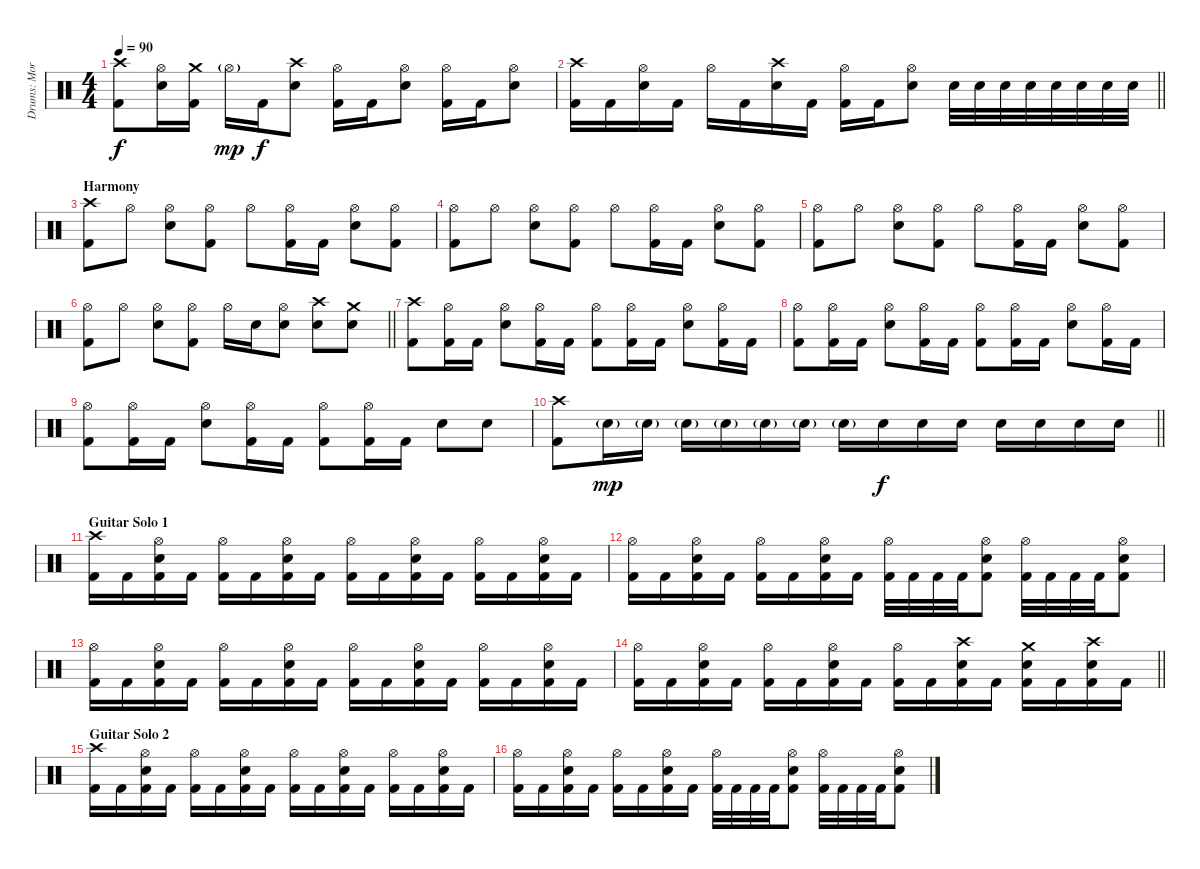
\track ("Drums: Morten Færøvig" "Drums: Mor") {instrument percussion}
\staff {score}
\articulation defaults
\ts (4 4)
\tempo 90
\clef neutral
\ks aminor
("Crash high (hit)" "Kick (hit) 2").8{dy f} ("Hi-Hat (open)" "Electric Snare (hit)").16 ("Crash medium (hit)" "Kick (hit) 2").16 "Hi-Hat (open)"{g}.16{dy mp} "Kick (hit) 2".16{dy f} ("Crash high (hit)" "Electric Snare (hit)").8 ("Hi-Hat (open)" "Kick (hit) 2").16 "Kick (hit) 2".16 ("Hi-Hat (open)" "Electric Snare (hit)").8 ("Hi-Hat (open)" "Kick (hit) 2").16 "Kick (hit) 2".16 ("Hi-Hat (open)" "Electric Snare (hit)").8 |
\barLineRight lightlight
("Crash high (hit)" "Kick (hit) 2").16 "Kick (hit) 2".16 ("Hi-Hat (open)" "Electric Snare (hit)").16 "Kick (hit) 2".16 "Hi-Hat (open)".16 "Kick (hit) 2".16 ("Crash high (hit)" "Electric Snare (hit)").16 "Kick (hit) 2".16 ("Hi-Hat (open)" "Kick (hit) 2").16 "Kick (hit) 2".16 ("Hi-Hat (open)" "Electric Snare (hit)").8 "Electric Snare (hit)".32 "Electric Snare (hit)".32 "Electric Snare (hit)".32 "Electric Snare (hit)".32 "Electric Snare (hit)".32 "Electric Snare (hit)".32 "Electric Snare (hit)".32 "Electric Snare (hit)".32 |
\section ("" "Harmony")
("Crash high (hit)" "Kick (hit) 2").8 "Hi-Hat (open)".8 ("Hi-Hat (open)" "Electric Snare (hit)").8 ("Hi-Hat (open)" "Kick (hit) 2").8 "Hi-Hat (open)".8 ("Hi-Hat (open)" "Kick (hit) 2").16 "Kick (hit) 2".16 ("Hi-Hat (open)" "Electric Snare (hit)").8 ("Hi-Hat (open)" "Kick (hit) 2").8 |
("Hi-Hat (open)" "Kick (hit) 2").8 "Hi-Hat (open)".8 ("Hi-Hat (open)" "Electric Snare (hit)").8 ("Hi-Hat (open)" "Kick (hit) 2").8 "Hi-Hat (open)".8 ("Hi-Hat (open)" "Kick (hit) 2").16 "Kick (hit) 2".16 ("Hi-Hat (open)" "Electric Snare (hit)").8 ("Hi-Hat (open)" "Kick (hit) 2").8 |
("Hi-Hat (open)" "Kick (hit) 2").8 "Hi-Hat (open)".8 ("Hi-Hat (open)" "Electric Snare (hit)").8 ("Hi-Hat (open)" "Kick (hit) 2").8 "Hi-Hat (open)".8 ("Hi-Hat (open)" "Kick (hit) 2").16 "Kick (hit) 2".16 ("Hi-Hat (open)" "Electric Snare (hit)").8 ("Hi-Hat (open)" "Kick (hit) 2").8 |
\barLineRight lightlight
("Hi-Hat (open)" "Kick (hit) 2").8 "Hi-Hat (open)".8 ("Hi-Hat (open)" "Electric Snare (hit)").8 ("Hi-Hat (open)" "Kick (hit) 2").8 "Hi-Hat (open)".16 "Electric Snare (hit)".16 ("Hi-Hat (open)" "Electric Snare (hit)").8 ("Crash high (hit)" "Electric Snare (hit)").8 ("Crash medium (hit)" "Electric Snare (hit)").8 |
("Crash high (hit)" "Kick (hit) 2").8 ("Hi-Hat (open)" "Kick (hit) 2").16 "Kick (hit) 2".16 ("Hi-Hat (open)" "Electric Snare (hit)").8 ("Hi-Hat (open)" "Kick (hit) 2").16 "Kick (hit) 2".16 ("Hi-Hat (open)" "Kick (hit) 2").8 ("Hi-Hat (open)" "Kick (hit) 2").16 "Kick (hit) 2".16 ("Hi-Hat (open)" "Electric Snare (hit)").8 ("Hi-Hat (open)" "Kick (hit) 2").16 "Kick (hit) 2".16 |
("Hi-Hat (open)" "Kick (hit) 2").8 ("Hi-Hat (open)" "Kick (hit) 2").16 "Kick (hit) 2".16 ("Hi-Hat (open)" "Electric Snare (hit)").8 ("Hi-Hat (open)" "Kick (hit) 2").16 "Kick (hit) 2".16 ("Hi-Hat (open)" "Kick (hit) 2").8 ("Hi-Hat (open)" "Kick (hit) 2").16 "Kick (hit) 2".16 ("Hi-Hat (open)" "Electric Snare (hit)").8 ("Hi-Hat (open)" "Kick (hit) 2").16 "Kick (hit) 2".16 |
("Hi-Hat (open)" "Kick (hit) 2").8 ("Hi-Hat (open)" "Kick (hit) 2").16 "Kick (hit) 2".16 ("Hi-Hat (open)" "Electric Snare (hit)").8 ("Hi-Hat (open)" "Kick (hit) 2").16 "Kick (hit) 2".16 ("Hi-Hat (open)" "Kick (hit) 2").8 ("Hi-Hat (open)" "Kick (hit) 2").16 "Kick (hit) 2".16 "Electric Snare (hit)".8 "Electric Snare (hit)".8 |
\barLineRight lightlight
("Crash high (hit)" "Kick (hit) 2").8 "Electric Snare (hit)"{g}.16{dy mp} "Electric Snare (hit)"{g}.16 "Electric Snare (hit)"{g}.16 "Electric Snare (hit)"{g}.16 "Electric Snare (hit)"{g}.16 "Electric Snare (hit)"{g}.16 "Electric Snare (hit)"{g}.16 "Electric Snare (hit)".16{dy f} "Electric Snare (hit)".16 "Electric Snare (hit)".16 "Electric Snare (hit)".16 "Electric Snare (hit)".16 "Electric Snare (hit)".16 "Electric Snare (hit)".16 |
\section ("" "Guitar Solo 1")
("Crash high (hit)" "Kick (hit) 2").16 "Kick (hit) 2".16 ("Hi-Hat (open)" "Electric Snare (hit)" "Kick (hit) 2").16 "Kick (hit) 2".16 ("Hi-Hat (open)" "Kick (hit) 2").16 "Kick (hit) 2".16 ("Hi-Hat (open)" "Electric Snare (hit)" "Kick (hit) 2").16 "Kick (hit) 2".16 ("Hi-Hat (open)" "Kick (hit) 2").16 "Kick (hit) 2".16 ("Hi-Hat (open)" "Electric Snare (hit)" "Kick (hit) 2").16 "Kick (hit) 2".16 ("Hi-Hat (open)" "Kick (hit) 2").16 "Kick (hit) 2".16 ("Hi-Hat (open)" "Electric Snare (hit)" "Kick (hit) 2").16 "Kick (hit) 2".16 |
("Hi-Hat (open)" "Kick (hit) 2").16 "Kick (hit) 2".16 ("Hi-Hat (open)" "Electric Snare (hit)" "Kick (hit) 2").16 "Kick (hit) 2".16 ("Hi-Hat (open)" "Kick (hit) 2").16 "Kick (hit) 2".16 ("Hi-Hat (open)" "Electric Snare (hit)" "Kick (hit) 2").16 "Kick (hit) 2".16 ("Hi-Hat (open)" "Kick (hit) 2").32 "Kick (hit) 2".32 "Kick (hit) 2".32 "Kick (hit) 2".32 ("Hi-Hat (open)" "Electric Snare (hit)" "Kick (hit) 2").8 ("Hi-Hat (open)" "Kick (hit) 2").32 "Kick (hit) 2".32 "Kick (hit) 2".32 "Kick (hit) 2".32 ("Hi-Hat (open)" "Electric Snare (hit)" "Kick (hit) 2").8 |
("Hi-Hat (open)" "Kick (hit) 2").16 "Kick (hit) 2".16 ("Hi-Hat (open)" "Electric Snare (hit)" "Kick (hit) 2").16 "Kick (hit) 2".16 ("Hi-Hat (open)" "Kick (hit) 2").16 "Kick (hit) 2".16 ("Hi-Hat (open)" "Electric Snare (hit)" "Kick (hit) 2").16 "Kick (hit) 2".16 ("Hi-Hat (open)" "Kick (hit) 2").16 "Kick (hit) 2".16 ("Hi-Hat (open)" "Electric Snare (hit)" "Kick (hit) 2").16 "Kick (hit) 2".16 ("Hi-Hat (open)" "Kick (hit) 2").16 "Kick (hit) 2".16 ("Hi-Hat (open)" "Electric Snare (hit)" "Kick (hit) 2").16 "Kick (hit) 2".16 |
\barLineRight lightlight
("Hi-Hat (open)" "Kick (hit) 2").16 "Kick (hit) 2".16 ("Hi-Hat (open)" "Electric Snare (hit)" "Kick (hit) 2").16 "Kick (hit) 2".16 ("Hi-Hat (open)" "Kick (hit) 2").16 "Kick (hit) 2".16 ("Hi-Hat (open)" "Electric Snare (hit)" "Kick (hit) 2").16 "Kick (hit) 2".16 ("Hi-Hat (open)" "Kick (hit) 2").16 "Kick (hit) 2".16 ("Crash high (hit)" "Electric Snare (hit)" "Kick (hit) 2").16 "Kick (hit) 2".16 ("Crash medium (hit)" "Electric Snare (hit)" "Kick (hit) 2").16 "Kick (hit) 2".16 ("Crash high (hit)" "Electric Snare (hit)" "Kick (hit) 2").16 "Kick (hit) 2".16 |
\section ("" "Guitar Solo 2")
("Crash high (hit)" "Kick (hit) 2").16 "Kick (hit) 2".16 ("Hi-Hat (open)" "Electric Snare (hit)" "Kick (hit) 2").16 "Kick (hit) 2".16 ("Hi-Hat (open)" "Kick (hit) 2").16 "Kick (hit) 2".16 ("Hi-Hat (open)" "Electric Snare (hit)" "Kick (hit) 2").16 "Kick (hit) 2".16 ("Hi-Hat (open)" "Kick (hit) 2").16 "Kick (hit) 2".16 ("Hi-Hat (open)" "Electric Snare (hit)" "Kick (hit) 2").16 "Kick (hit) 2".16 ("Hi-Hat (open)" "Kick (hit) 2").16 "Kick (hit) 2".16 ("Hi-Hat (open)" "Electric Snare (hit)" "Kick (hit) 2").16 "Kick (hit) 2".16 |
("Hi-Hat (open)" "Kick (hit) 2").16 "Kick (hit) 2".16 ("Hi-Hat (open)" "Electric Snare (hit)" "Kick (hit) 2").16 "Kick (hit) 2".16 ("Hi-Hat (open)" "Kick (hit) 2").16 "Kick (hit) 2".16 ("Hi-Hat (open)" "Electric Snare (hit)" "Kick (hit) 2").16 "Kick (hit) 2".16 ("Hi-Hat (open)" "Kick (hit) 2").32 "Kick (hit) 2".32 "Kick (hit) 2".32 "Kick (hit) 2".32 ("Hi-Hat (open)" "Electric Snare (hit)" "Kick (hit) 2").8 ("Hi-Hat (open)" "Kick (hit) 2").32 "Kick (hit) 2".32 "Kick (hit) 2".32 "Kick (hit) 2".32 ("Hi-Hat (open)" "Electric Snare (hit)" "Kick (hit) 2").8
